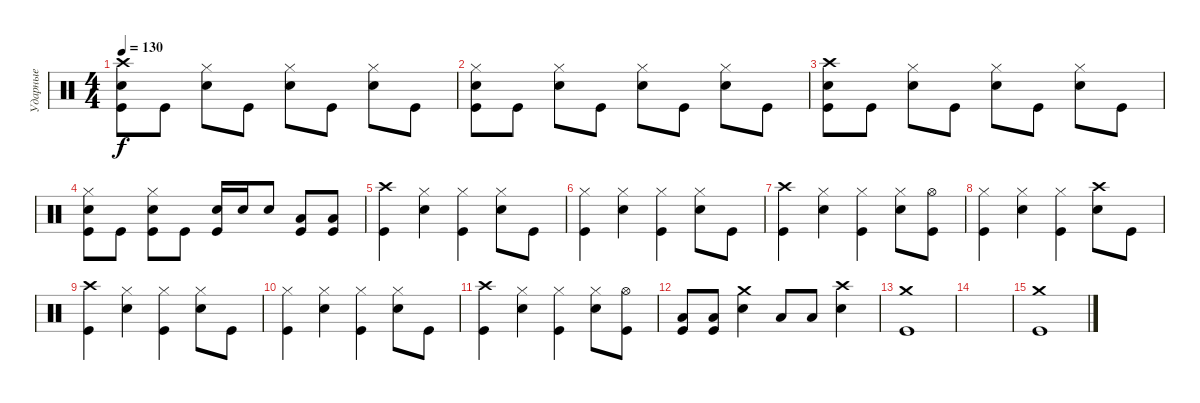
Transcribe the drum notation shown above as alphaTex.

\track ("Ударные" "Ударные") {instrument percussion}
\staff {score}
\articulation defaults
\ts (4 4)
\tempo 130
\clef neutral
\ks c
("Crash high (hit)" "Electric Snare (hit)" "Kick (hit)").8{dy f} "Kick (hit)".8 ("Hi-Hat (closed)" "Electric Snare (hit)").8 "Kick (hit)".8 ("Hi-Hat (closed)" "Electric Snare (hit)").8 "Kick (hit)".8 ("Hi-Hat (closed)" "Electric Snare (hit)").8 "Kick (hit)".8 |
("Hi-Hat (closed)" "Electric Snare (hit)" "Kick (hit)").8 "Kick (hit)".8 ("Hi-Hat (closed)" "Electric Snare (hit)").8 "Kick (hit)".8 ("Hi-Hat (closed)" "Electric Snare (hit)").8 "Kick (hit)".8 ("Hi-Hat (closed)" "Electric Snare (hit)").8 "Kick (hit)".8 |
("Crash high (hit)" "Electric Snare (hit)" "Kick (hit)").8 "Kick (hit)".8 ("Hi-Hat (closed)" "Electric Snare (hit)").8 "Kick (hit)".8 ("Hi-Hat (closed)" "Electric Snare (hit)").8 "Kick (hit)".8 ("Hi-Hat (closed)" "Electric Snare (hit)").8 "Kick (hit)".8 |
("Hi-Hat (closed)" "Electric Snare (hit)" "Kick (hit)").8 "Kick (hit)".8 ("Hi-Hat (closed)" "Electric Snare (hit)" "Kick (hit)").8 "Kick (hit)".8 ("Electric Snare (hit)" "Kick (hit)").16 "Electric Snare (hit)".16 "Electric Snare (hit)".8 ("Low Tom (hit)" "Kick (hit)").8 ("Low Tom (hit)" "Kick (hit)").8 |
("Crash high (hit)" "Kick (hit)").4 ("Hi-Hat (closed)" "Electric Snare (hit)").4 ("Hi-Hat (closed)" "Kick (hit)").4 ("Hi-Hat (closed)" "Electric Snare (hit)").8 "Kick (hit)".8 |
("Hi-Hat (closed)" "Kick (hit)").4 ("Hi-Hat (closed)" "Electric Snare (hit)").4 ("Hi-Hat (closed)" "Kick (hit)").4 ("Hi-Hat (closed)" "Electric Snare (hit)").8 "Kick (hit)".8 |
("Crash high (hit)" "Kick (hit)").4 ("Hi-Hat (closed)" "Electric Snare (hit)").4 ("Hi-Hat (closed)" "Kick (hit)").4 ("Hi-Hat (closed)" "Electric Snare (hit)").8 ("Hi-Hat (open)" "Kick (hit)").8 |
("Hi-Hat (closed)" "Kick (hit)").4 ("Hi-Hat (closed)" "Electric Snare (hit)").4 ("Hi-Hat (closed)" "Kick (hit)").4 ("Crash high (hit)" "Electric Snare (hit)").8 "Kick (hit)".8 |
("Crash high (hit)" "Kick (hit)").4 ("Hi-Hat (closed)" "Electric Snare (hit)").4 ("Hi-Hat (closed)" "Kick (hit)").4 ("Hi-Hat (closed)" "Electric Snare (hit)").8 "Kick (hit)".8 |
("Hi-Hat (closed)" "Kick (hit)").4 ("Hi-Hat (closed)" "Electric Snare (hit)").4 ("Hi-Hat (closed)" "Kick (hit)").4 ("Hi-Hat (closed)" "Electric Snare (hit)").8 "Kick (hit)".8 |
("Crash high (hit)" "Kick (hit)").4 ("Hi-Hat (closed)" "Electric Snare (hit)").4 ("Hi-Hat (closed)" "Kick (hit)").4 ("Hi-Hat (closed)" "Electric Snare (hit)").8 ("Hi-Hat (open)" "Kick (hit)").8 |
("Low Tom (hit)" "Kick (hit)").8 ("Low Tom (hit)" "Kick (hit)").8 ("Crash medium (hit)" "Electric Snare (hit)").4 "Low Tom (hit)".8 "Low Tom (hit)".8 ("Crash high (hit)" "Electric Snare (hit)").4 |
("Crash medium (hit)" "Kick (hit)").1 |
|
("Crash medium (hit)" "Kick (hit)").1
